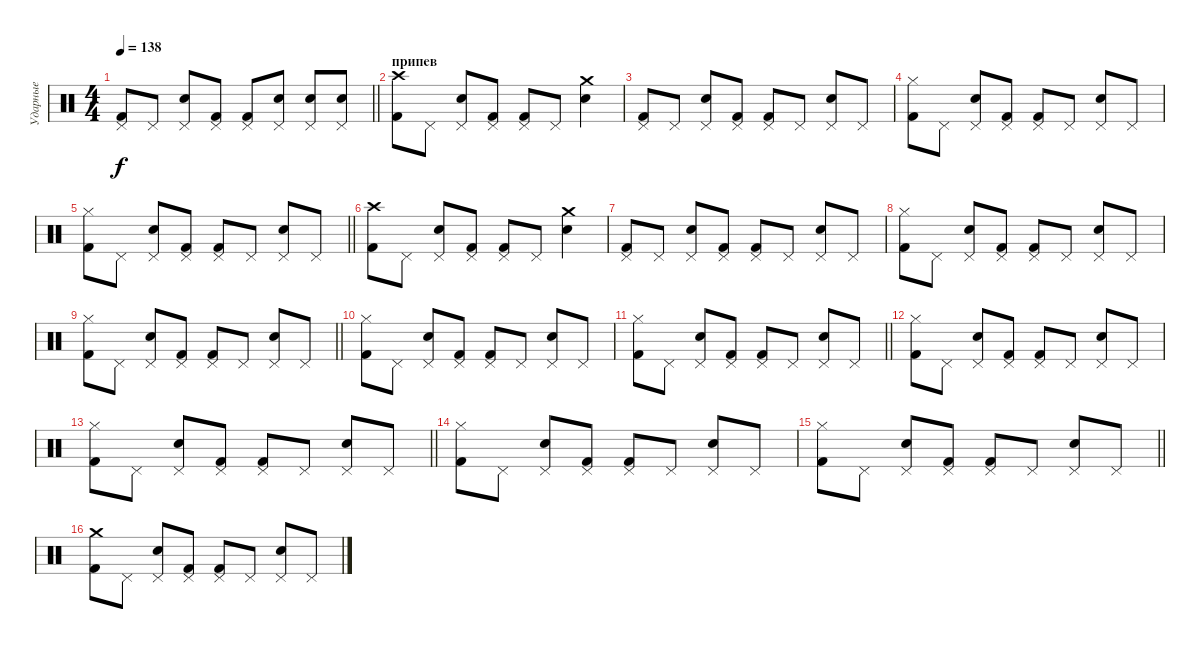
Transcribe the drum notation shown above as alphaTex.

\track ("Ударные" "Ударные") {instrument percussion}
\staff {score}
\articulation defaults
\ts (4 4)
\tempo 138
\clef neutral
\barLineRight lightlight
\ks c
("Pedal Hi-Hat (hit)" "Kick (hit) 2").8{dy f} "Pedal Hi-Hat (hit)".8 ("Pedal Hi-Hat (hit)" "Electric Snare (hit)").8 ("Pedal Hi-Hat (hit)" "Kick (hit) 2").8 ("Pedal Hi-Hat (hit)" "Kick (hit) 2").8 ("Pedal Hi-Hat (hit)" "Electric Snare (hit)").8 ("Pedal Hi-Hat (hit)" "Electric Snare (hit)").8 ("Pedal Hi-Hat (hit)" "Electric Snare (hit)").8 |
\section ("" "припев")
("Crash high (hit)" "Kick (hit) 2").8 "Pedal Hi-Hat (hit)".8 ("Pedal Hi-Hat (hit)" "Electric Snare (hit)").8 ("Pedal Hi-Hat (hit)" "Kick (hit) 2").8 ("Pedal Hi-Hat (hit)" "Kick (hit) 2").8 "Pedal Hi-Hat (hit)".8 ("Crash medium (hit)" "Electric Snare (hit)").4 |
("Pedal Hi-Hat (hit)" "Kick (hit) 2").8 "Pedal Hi-Hat (hit)".8 ("Pedal Hi-Hat (hit)" "Electric Snare (hit)").8 ("Pedal Hi-Hat (hit)" "Kick (hit) 2").8 ("Pedal Hi-Hat (hit)" "Kick (hit) 2").8 "Pedal Hi-Hat (hit)".8 ("Pedal Hi-Hat (hit)" "Electric Snare (hit)").8 "Pedal Hi-Hat (hit)".8 |
("Hi-Hat (closed)" "Kick (hit) 2").8 "Pedal Hi-Hat (hit)".8 ("Pedal Hi-Hat (hit)" "Electric Snare (hit)").8 ("Pedal Hi-Hat (hit)" "Kick (hit) 2").8 ("Pedal Hi-Hat (hit)" "Kick (hit) 2").8 "Pedal Hi-Hat (hit)".8 ("Pedal Hi-Hat (hit)" "Electric Snare (hit)").8 "Pedal Hi-Hat (hit)".8 |
\barLineRight lightlight
("Hi-Hat (closed)" "Kick (hit) 2").8 "Pedal Hi-Hat (hit)".8 ("Pedal Hi-Hat (hit)" "Electric Snare (hit)").8 ("Pedal Hi-Hat (hit)" "Kick (hit) 2").8 ("Pedal Hi-Hat (hit)" "Kick (hit) 2").8 "Pedal Hi-Hat (hit)".8 ("Pedal Hi-Hat (hit)" "Electric Snare (hit)").8 "Pedal Hi-Hat (hit)".8 |
("Crash high (hit)" "Kick (hit) 2").8 "Pedal Hi-Hat (hit)".8 ("Pedal Hi-Hat (hit)" "Electric Snare (hit)").8 ("Pedal Hi-Hat (hit)" "Kick (hit) 2").8 ("Pedal Hi-Hat (hit)" "Kick (hit) 2").8 "Pedal Hi-Hat (hit)".8 ("Crash medium (hit)" "Electric Snare (hit)").4 |
("Pedal Hi-Hat (hit)" "Kick (hit) 2").8 "Pedal Hi-Hat (hit)".8 ("Pedal Hi-Hat (hit)" "Electric Snare (hit)").8 ("Pedal Hi-Hat (hit)" "Kick (hit) 2").8 ("Pedal Hi-Hat (hit)" "Kick (hit) 2").8 "Pedal Hi-Hat (hit)".8 ("Pedal Hi-Hat (hit)" "Electric Snare (hit)").8 "Pedal Hi-Hat (hit)".8 |
("Hi-Hat (closed)" "Kick (hit) 2").8 "Pedal Hi-Hat (hit)".8 ("Pedal Hi-Hat (hit)" "Electric Snare (hit)").8 ("Pedal Hi-Hat (hit)" "Kick (hit) 2").8 ("Pedal Hi-Hat (hit)" "Kick (hit) 2").8 "Pedal Hi-Hat (hit)".8 ("Pedal Hi-Hat (hit)" "Electric Snare (hit)").8 "Pedal Hi-Hat (hit)".8 |
\barLineRight lightlight
("Hi-Hat (closed)" "Kick (hit) 2").8 "Pedal Hi-Hat (hit)".8 ("Pedal Hi-Hat (hit)" "Electric Snare (hit)").8 ("Pedal Hi-Hat (hit)" "Kick (hit) 2").8 ("Pedal Hi-Hat (hit)" "Kick (hit) 2").8 "Pedal Hi-Hat (hit)".8 ("Pedal Hi-Hat (hit)" "Electric Snare (hit)").8 "Pedal Hi-Hat (hit)".8 |
("Hi-Hat (closed)" "Kick (hit) 2").8 "Pedal Hi-Hat (hit)".8 ("Pedal Hi-Hat (hit)" "Electric Snare (hit)").8 ("Pedal Hi-Hat (hit)" "Kick (hit) 2").8 ("Pedal Hi-Hat (hit)" "Kick (hit) 2").8 "Pedal Hi-Hat (hit)".8 ("Pedal Hi-Hat (hit)" "Electric Snare (hit)").8 "Pedal Hi-Hat (hit)".8 |
\barLineRight lightlight
("Hi-Hat (closed)" "Kick (hit) 2").8 "Pedal Hi-Hat (hit)".8 ("Pedal Hi-Hat (hit)" "Electric Snare (hit)").8 ("Pedal Hi-Hat (hit)" "Kick (hit) 2").8 ("Pedal Hi-Hat (hit)" "Kick (hit) 2").8 "Pedal Hi-Hat (hit)".8 ("Pedal Hi-Hat (hit)" "Electric Snare (hit)").8 "Pedal Hi-Hat (hit)".8 |
("Hi-Hat (closed)" "Kick (hit) 2").8 "Pedal Hi-Hat (hit)".8 ("Pedal Hi-Hat (hit)" "Electric Snare (hit)").8 ("Pedal Hi-Hat (hit)" "Kick (hit) 2").8 ("Pedal Hi-Hat (hit)" "Kick (hit) 2").8 "Pedal Hi-Hat (hit)".8 ("Pedal Hi-Hat (hit)" "Electric Snare (hit)").8 "Pedal Hi-Hat (hit)".8 |
\barLineRight lightlight
("Hi-Hat (closed)" "Kick (hit) 2").8 "Pedal Hi-Hat (hit)".8 ("Pedal Hi-Hat (hit)" "Electric Snare (hit)").8 ("Pedal Hi-Hat (hit)" "Kick (hit) 2").8 ("Pedal Hi-Hat (hit)" "Kick (hit) 2").8 "Pedal Hi-Hat (hit)".8 ("Pedal Hi-Hat (hit)" "Electric Snare (hit)").8 "Pedal Hi-Hat (hit)".8 |
("Hi-Hat (closed)" "Kick (hit) 2").8 "Pedal Hi-Hat (hit)".8 ("Pedal Hi-Hat (hit)" "Electric Snare (hit)").8 ("Pedal Hi-Hat (hit)" "Kick (hit) 2").8 ("Pedal Hi-Hat (hit)" "Kick (hit) 2").8 "Pedal Hi-Hat (hit)".8 ("Pedal Hi-Hat (hit)" "Electric Snare (hit)").8 "Pedal Hi-Hat (hit)".8 |
\barLineRight lightlight
("Hi-Hat (closed)" "Kick (hit) 2").8 "Pedal Hi-Hat (hit)".8 ("Pedal Hi-Hat (hit)" "Electric Snare (hit)").8 ("Pedal Hi-Hat (hit)" "Kick (hit) 2").8 ("Pedal Hi-Hat (hit)" "Kick (hit) 2").8 "Pedal Hi-Hat (hit)".8 ("Pedal Hi-Hat (hit)" "Electric Snare (hit)").8 "Pedal Hi-Hat (hit)".8 |
("Crash medium (hit)" "Kick (hit) 2").8 "Pedal Hi-Hat (hit)".8 ("Pedal Hi-Hat (hit)" "Electric Snare (hit)").8 ("Pedal Hi-Hat (hit)" "Kick (hit) 2").8 ("Pedal Hi-Hat (hit)" "Kick (hit) 2").8 "Pedal Hi-Hat (hit)".8 ("Pedal Hi-Hat (hit)" "Electric Snare (hit)").8 "Pedal Hi-Hat (hit)".8
